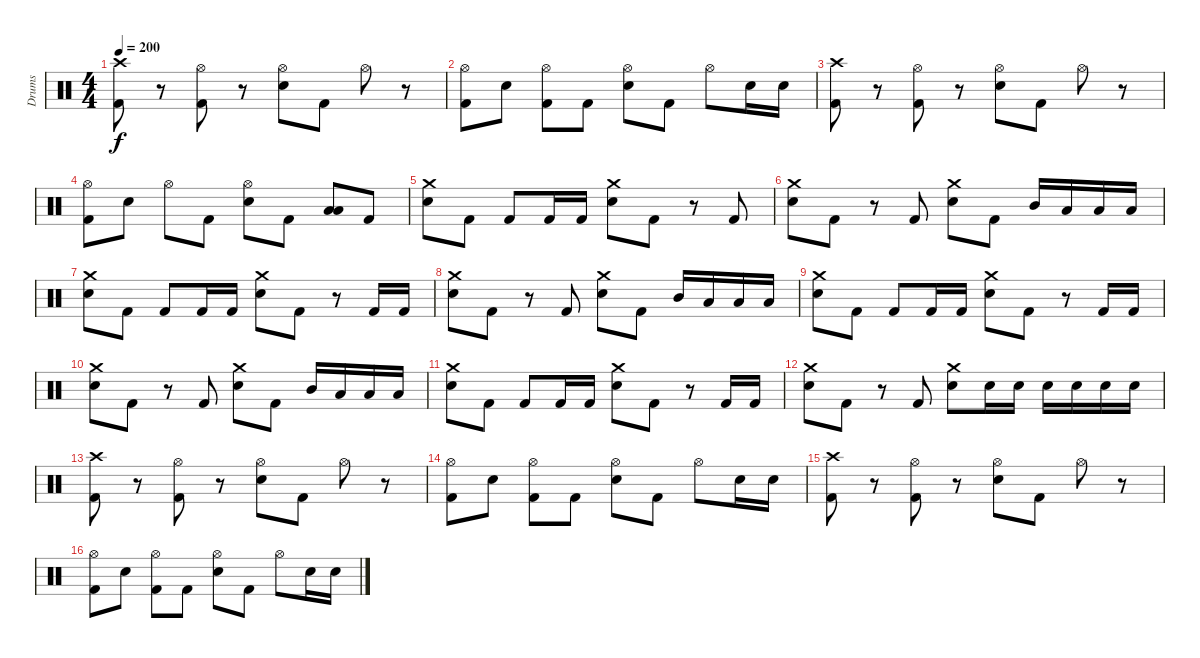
\track ("Drums" "Drums") {instrument percussion}
\staff {score}
\articulation defaults
\ts (4 4)
\tempo 200
\clef neutral
\ks c
("Crash high (hit)" "Kick (hit) 2").8{dy f} r.8 ("Hi-Hat (open)" "Kick (hit) 2").8 r.8 ("Hi-Hat (open)" "Electric Snare (hit)").8 "Kick (hit) 2".8 "Hi-Hat (open)".8 r.8 |
("Hi-Hat (open)" "Kick (hit) 2").8 "Electric Snare (hit)".8 ("Hi-Hat (open)" "Kick (hit) 2").8 "Kick (hit) 2".8 ("Hi-Hat (open)" "Electric Snare (hit)").8 "Kick (hit) 2".8 "Hi-Hat (open)".8 "Electric Snare (hit)".16 "Electric Snare (hit)".16 |
("Crash high (hit)" "Kick (hit) 2").8 r.8 ("Hi-Hat (open)" "Kick (hit) 2").8 r.8 ("Hi-Hat (open)" "Electric Snare (hit)").8 "Kick (hit) 2".8 "Hi-Hat (open)".8 r.8 |
("Hi-Hat (open)" "Kick (hit) 2").8 "Electric Snare (hit)".8 "Hi-Hat (open)".8 "Kick (hit) 2".8 ("Hi-Hat (open)" "Electric Snare (hit)").8 "Kick (hit) 2".8 ("Low Floor Tom (hit)" "Low Tom (hit)").8 "Kick (hit) 2".8 |
("Crash medium (hit)" "Electric Snare (hit)").8 "Kick (hit) 2".8 "Kick (hit) 2".8 "Kick (hit) 2".16 "Kick (hit) 2".16 ("Crash medium (hit)" "Electric Snare (hit)").8 "Kick (hit) 2".8 r.8 "Kick (hit) 2".8 |
("Crash medium (hit)" "Electric Snare (hit)").8 "Kick (hit) 2".8 r.8 "Kick (hit) 2".8 ("Crash medium (hit)" "Electric Snare (hit)").8 "Kick (hit) 2".8 "Mid Tom (hit)".16 "Low Tom (hit)".16 "Low Floor Tom (hit)".16 "Low Floor Tom (hit)".16 |
("Crash medium (hit)" "Electric Snare (hit)").8 "Kick (hit) 2".8 "Kick (hit) 2".8 "Kick (hit) 2".16 "Kick (hit) 2".16 ("Crash medium (hit)" "Electric Snare (hit)").8 "Kick (hit) 2".8 r.8 "Kick (hit) 2".16 "Kick (hit) 2".16 |
("Crash medium (hit)" "Electric Snare (hit)").8 "Kick (hit) 2".8 r.8 "Kick (hit) 2".8 ("Crash medium (hit)" "Electric Snare (hit)").8 "Kick (hit) 2".8 "Mid Tom (hit)".16 "Low Tom (hit)".16 "Low Floor Tom (hit)".16 "Low Floor Tom (hit)".16 |
("Crash medium (hit)" "Electric Snare (hit)").8 "Kick (hit) 2".8 "Kick (hit) 2".8 "Kick (hit) 2".16 "Kick (hit) 2".16 ("Crash medium (hit)" "Electric Snare (hit)").8 "Kick (hit) 2".8 r.8 "Kick (hit) 2".16 "Kick (hit) 2".16 |
("Crash medium (hit)" "Electric Snare (hit)").8 "Kick (hit) 2".8 r.8 "Kick (hit) 2".8 ("Crash medium (hit)" "Electric Snare (hit)").8 "Kick (hit) 2".8 "Mid Tom (hit)".16 "Low Tom (hit)".16 "Low Floor Tom (hit)".16 "Low Floor Tom (hit)".16 |
("Crash medium (hit)" "Electric Snare (hit)").8 "Kick (hit) 2".8 "Kick (hit) 2".8 "Kick (hit) 2".16 "Kick (hit) 2".16 ("Crash medium (hit)" "Electric Snare (hit)").8 "Kick (hit) 2".8 r.8 "Kick (hit) 2".16 "Kick (hit) 2".16 |
("Crash medium (hit)" "Electric Snare (hit)").8 "Kick (hit) 2".8 r.8 "Kick (hit) 2".8 ("Crash medium (hit)" "Electric Snare (hit)").8 "Electric Snare (hit)".16 "Electric Snare (hit)".16 "Electric Snare (hit)".16 "Electric Snare (hit)".16 "Electric Snare (hit)".16 "Electric Snare (hit)".16 |
("Crash high (hit)" "Kick (hit) 2").8 r.8 ("Hi-Hat (open)" "Kick (hit) 2").8 r.8 ("Hi-Hat (open)" "Electric Snare (hit)").8 "Kick (hit) 2".8 "Hi-Hat (open)".8 r.8 |
("Hi-Hat (open)" "Kick (hit) 2").8 "Electric Snare (hit)".8 ("Hi-Hat (open)" "Kick (hit) 2").8 "Kick (hit) 2".8 ("Hi-Hat (open)" "Electric Snare (hit)").8 "Kick (hit) 2".8 "Hi-Hat (open)".8 "Electric Snare (hit)".16 "Electric Snare (hit)".16 |
("Crash high (hit)" "Kick (hit) 2").8 r.8 ("Hi-Hat (open)" "Kick (hit) 2").8 r.8 ("Hi-Hat (open)" "Electric Snare (hit)").8 "Kick (hit) 2".8 "Hi-Hat (open)".8 r.8 |
("Hi-Hat (open)" "Kick (hit) 2").8 "Electric Snare (hit)".8 ("Hi-Hat (open)" "Kick (hit) 2").8 "Kick (hit) 2".8 ("Hi-Hat (open)" "Electric Snare (hit)").8 "Kick (hit) 2".8 "Hi-Hat (open)".8 "Electric Snare (hit)".16 "Electric Snare (hit)".16
